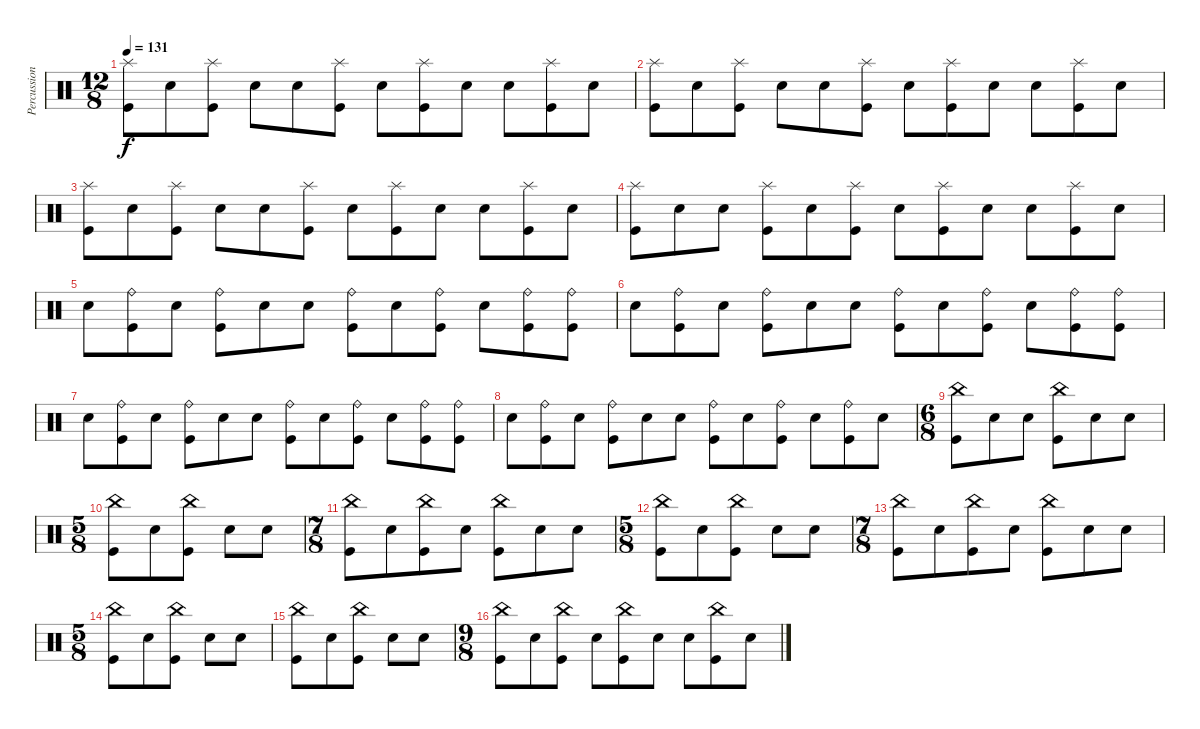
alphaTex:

\track ("Percussion" "Percussion") {instrument percussion}
\staff {score}
\articulation defaults
\ts (12 8)
\tempo 131
\clef neutral
\ks c
("Splash (hit)" "Kick (hit)").8{dy f} "Electric Snare (hit)".8 ("Splash (hit)" "Kick (hit)").8 "Electric Snare (hit)".8 "Electric Snare (hit)".8 ("Splash (hit)" "Kick (hit)").8 "Electric Snare (hit)".8 ("Splash (hit)" "Kick (hit)").8 "Electric Snare (hit)".8 "Electric Snare (hit)".8 ("Splash (hit)" "Kick (hit)").8 "Electric Snare (hit)".8 |
("Splash (hit)" "Kick (hit)").8 "Electric Snare (hit)".8 ("Splash (hit)" "Kick (hit)").8 "Electric Snare (hit)".8 "Electric Snare (hit)".8 ("Splash (hit)" "Kick (hit)").8 "Electric Snare (hit)".8 ("Splash (hit)" "Kick (hit)").8 "Electric Snare (hit)".8 "Electric Snare (hit)".8 ("Splash (hit)" "Kick (hit)").8 "Electric Snare (hit)".8 |
("Splash (hit)" "Kick (hit)").8 "Electric Snare (hit)".8 ("Splash (hit)" "Kick (hit)").8 "Electric Snare (hit)".8 "Electric Snare (hit)".8 ("Splash (hit)" "Kick (hit)").8 "Electric Snare (hit)".8 ("Splash (hit)" "Kick (hit)").8 "Electric Snare (hit)".8 "Electric Snare (hit)".8 ("Splash (hit)" "Kick (hit)").8 "Electric Snare (hit)".8 |
("Splash (hit)" "Kick (hit)").8 "Electric Snare (hit)".8 "Electric Snare (hit)".8 ("Splash (hit)" "Kick (hit)").8 "Electric Snare (hit)".8 ("Splash (hit)" "Kick (hit)").8 "Electric Snare (hit)".8 ("Splash (hit)" "Kick (hit)").8 "Electric Snare (hit)".8 "Electric Snare (hit)".8 ("Splash (hit)" "Kick (hit)").8 "Electric Snare (hit)".8 |
"Electric Snare (hit)".8 ("Ride (bell)" "Kick (hit)").8 "Electric Snare (hit)".8 ("Ride (bell)" "Kick (hit)").8 "Electric Snare (hit)".8 "Electric Snare (hit)".8 ("Ride (bell)" "Kick (hit)").8 "Electric Snare (hit)".8 ("Ride (bell)" "Kick (hit)").8 "Electric Snare (hit)".8 ("Ride (bell)" "Kick (hit)").8 ("Ride (bell)" "Kick (hit)").8 |
"Electric Snare (hit)".8 ("Ride (bell)" "Kick (hit)").8 "Electric Snare (hit)".8 ("Ride (bell)" "Kick (hit)").8 "Electric Snare (hit)".8 "Electric Snare (hit)".8 ("Ride (bell)" "Kick (hit)").8 "Electric Snare (hit)".8 ("Ride (bell)" "Kick (hit)").8 "Electric Snare (hit)".8 ("Ride (bell)" "Kick (hit)").8 ("Ride (bell)" "Kick (hit)").8 |
"Electric Snare (hit)".8 ("Ride (bell)" "Kick (hit)").8 "Electric Snare (hit)".8 ("Ride (bell)" "Kick (hit)").8 "Electric Snare (hit)".8 "Electric Snare (hit)".8 ("Ride (bell)" "Kick (hit)").8 "Electric Snare (hit)".8 ("Ride (bell)" "Kick (hit)").8 "Electric Snare (hit)".8 ("Ride (bell)" "Kick (hit)").8 ("Ride (bell)" "Kick (hit)").8 |
"Electric Snare (hit)".8 ("Ride (bell)" "Kick (hit)").8 "Electric Snare (hit)".8 ("Ride (bell)" "Kick (hit)").8 "Electric Snare (hit)".8 "Electric Snare (hit)".8 ("Ride (bell)" "Kick (hit)").8 "Electric Snare (hit)".8 ("Ride (bell)" "Kick (hit)").8 "Electric Snare (hit)".8 ("Ride (bell)" "Kick (hit)").8 "Electric Snare (hit)".8 |
\ts (6 8)
("China (hit)" "Kick (hit)").8 "Electric Snare (hit)".8 "Electric Snare (hit)".8 ("China (hit)" "Kick (hit)").8 "Electric Snare (hit)".8 "Electric Snare (hit)".8 |
\ts (5 8)
("Kick (hit)" "China (hit)").8 "Electric Snare (hit)".8 ("Kick (hit)" "China (hit)").8 "Electric Snare (hit)".8 "Electric Snare (hit)".8 |
\ts (7 8)
("China (hit)" "Kick (hit)").8 "Electric Snare (hit)".8 ("China (hit)" "Kick (hit)").8 "Electric Snare (hit)".8 ("China (hit)" "Kick (hit)").8 "Electric Snare (hit)".8 "Electric Snare (hit)".8 |
\ts (5 8)
("Kick (hit)" "China (hit)").8 "Electric Snare (hit)".8 ("Kick (hit)" "China (hit)").8 "Electric Snare (hit)".8 "Electric Snare (hit)".8 |
\ts (7 8)
("China (hit)" "Kick (hit)").8 "Electric Snare (hit)".8 ("China (hit)" "Kick (hit)").8 "Electric Snare (hit)".8 ("China (hit)" "Kick (hit)").8 "Electric Snare (hit)".8 "Electric Snare (hit)".8 |
\ts (5 8)
("Kick (hit)" "China (hit)").8 "Electric Snare (hit)".8 ("Kick (hit)" "China (hit)").8 "Electric Snare (hit)".8 "Electric Snare (hit)".8 |
("Kick (hit)" "China (hit)").8 "Electric Snare (hit)".8 ("Kick (hit)" "China (hit)").8 "Electric Snare (hit)".8 "Electric Snare (hit)".8 |
\ts (9 8)
("China (hit)" "Kick (hit)").8 "Electric Snare (hit)".8 ("China (hit)" "Kick (hit)").8 "Electric Snare (hit)".8 ("China (hit)" "Kick (hit)").8 "Electric Snare (hit)".8 "Electric Snare (hit)".8 ("China (hit)" "Kick (hit)").8 "Electric Snare (hit)".8
